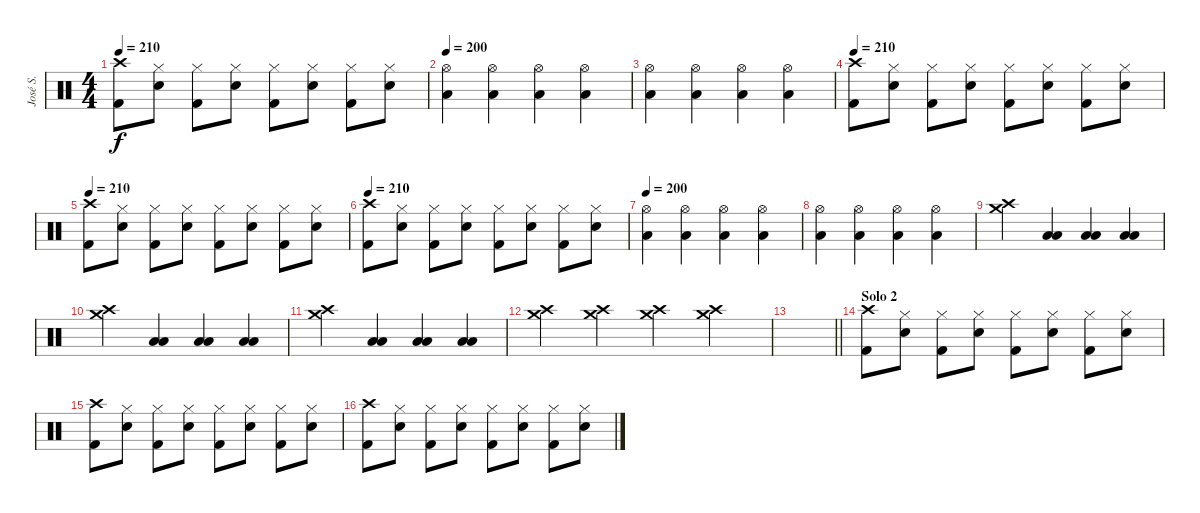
\track ("José S." "José S.") {instrument percussion}
\staff {score}
\articulation defaults
\ts (4 4)
\tempo 210
\clef neutral
\ks c
("Crash high (hit)" "Kick (hit) 2").8{dy f} ("Hi-Hat (closed)" "Electric Snare (hit)").8 ("Hi-Hat (closed)" "Kick (hit) 2").8 ("Hi-Hat (closed)" "Electric Snare (hit)").8 ("Hi-Hat (closed)" "Kick (hit) 2").8 ("Hi-Hat (closed)" "Electric Snare (hit)").8 ("Hi-Hat (closed)" "Kick (hit) 2").8 ("Hi-Hat (closed)" "Electric Snare (hit)").8 |
\tempo 200
("Hi-Hat (open)" "Low Floor Tom (hit)").4 ("Hi-Hat (open)" "Low Floor Tom (hit)").4 ("Hi-Hat (open)" "Low Floor Tom (hit)").4 ("Hi-Hat (open)" "Low Floor Tom (hit)").4 |
("Hi-Hat (open)" "Low Floor Tom (hit)").4 ("Hi-Hat (open)" "Low Floor Tom (hit)").4 ("Hi-Hat (open)" "Low Floor Tom (hit)").4 ("Hi-Hat (open)" "Low Floor Tom (hit)").4 |
\tempo 210
("Crash high (hit)" "Kick (hit) 2").8 ("Hi-Hat (closed)" "Electric Snare (hit)").8 ("Hi-Hat (closed)" "Kick (hit) 2").8 ("Hi-Hat (closed)" "Electric Snare (hit)").8 ("Hi-Hat (closed)" "Kick (hit) 2").8 ("Hi-Hat (closed)" "Electric Snare (hit)").8 ("Hi-Hat (closed)" "Kick (hit) 2").8 ("Hi-Hat (closed)" "Electric Snare (hit)").8 |
\tempo 210
("Crash high (hit)" "Kick (hit) 2").8 ("Hi-Hat (closed)" "Electric Snare (hit)").8 ("Hi-Hat (closed)" "Kick (hit) 2").8 ("Hi-Hat (closed)" "Electric Snare (hit)").8 ("Hi-Hat (closed)" "Kick (hit) 2").8 ("Hi-Hat (closed)" "Electric Snare (hit)").8 ("Hi-Hat (closed)" "Kick (hit) 2").8 ("Hi-Hat (closed)" "Electric Snare (hit)").8 |
\tempo 210
("Crash high (hit)" "Kick (hit) 2").8 ("Hi-Hat (closed)" "Electric Snare (hit)").8 ("Hi-Hat (closed)" "Kick (hit) 2").8 ("Hi-Hat (closed)" "Electric Snare (hit)").8 ("Hi-Hat (closed)" "Kick (hit) 2").8 ("Hi-Hat (closed)" "Electric Snare (hit)").8 ("Hi-Hat (closed)" "Kick (hit) 2").8 ("Hi-Hat (closed)" "Electric Snare (hit)").8 |
\tempo 200
("Hi-Hat (open)" "Low Floor Tom (hit)").4 ("Hi-Hat (open)" "Low Floor Tom (hit)").4 ("Hi-Hat (open)" "Low Floor Tom (hit)").4 ("Hi-Hat (open)" "Low Floor Tom (hit)").4 |
("Hi-Hat (open)" "Low Floor Tom (hit)").4 ("Hi-Hat (open)" "Low Floor Tom (hit)").4 ("Hi-Hat (open)" "Low Floor Tom (hit)").4 ("Hi-Hat (open)" "Low Floor Tom (hit)").4 |
("Crash high (hit)" "Crash medium (hit)").4 ("Low Tom (hit)" "Low Floor Tom (hit)").4 ("Low Tom (hit)" "Low Floor Tom (hit)").4 ("Low Tom (hit)" "Low Floor Tom (hit)").4 |
("Crash high (hit)" "Crash medium (hit)").4 ("Low Tom (hit)" "Low Floor Tom (hit)").4 ("Low Tom (hit)" "Low Floor Tom (hit)").4 ("Low Tom (hit)" "Low Floor Tom (hit)").4 |
("Crash high (hit)" "Crash medium (hit)").4 ("Low Tom (hit)" "Low Floor Tom (hit)").4 ("Low Tom (hit)" "Low Floor Tom (hit)").4 ("Low Tom (hit)" "Low Floor Tom (hit)").4 |
("Crash medium (hit)" "Crash high (hit)").4 ("Crash medium (hit)" "Crash high (hit)").4 ("Crash medium (hit)" "Crash high (hit)").4 ("Crash medium (hit)" "Crash high (hit)").4 |
\barLineRight lightlight
|
\section ("" "Solo 2")
("Crash high (hit)" "Kick (hit) 2").8 ("Hi-Hat (closed)" "Electric Snare (hit)").8 ("Hi-Hat (closed)" "Kick (hit) 2").8 ("Hi-Hat (closed)" "Electric Snare (hit)").8 ("Hi-Hat (closed)" "Kick (hit) 2").8 ("Hi-Hat (closed)" "Electric Snare (hit)").8 ("Hi-Hat (closed)" "Kick (hit) 2").8 ("Hi-Hat (closed)" "Electric Snare (hit)").8 |
("Crash high (hit)" "Kick (hit) 2").8 ("Hi-Hat (closed)" "Electric Snare (hit)").8 ("Hi-Hat (closed)" "Kick (hit) 2").8 ("Hi-Hat (closed)" "Electric Snare (hit)").8 ("Hi-Hat (closed)" "Kick (hit) 2").8 ("Hi-Hat (closed)" "Electric Snare (hit)").8 ("Hi-Hat (closed)" "Kick (hit) 2").8 ("Hi-Hat (closed)" "Electric Snare (hit)").8 |
("Crash high (hit)" "Kick (hit) 2").8 ("Hi-Hat (closed)" "Electric Snare (hit)").8 ("Hi-Hat (closed)" "Kick (hit) 2").8 ("Hi-Hat (closed)" "Electric Snare (hit)").8 ("Hi-Hat (closed)" "Kick (hit) 2").8 ("Hi-Hat (closed)" "Electric Snare (hit)").8 ("Hi-Hat (closed)" "Kick (hit) 2").8 ("Hi-Hat (closed)" "Electric Snare (hit)").8
